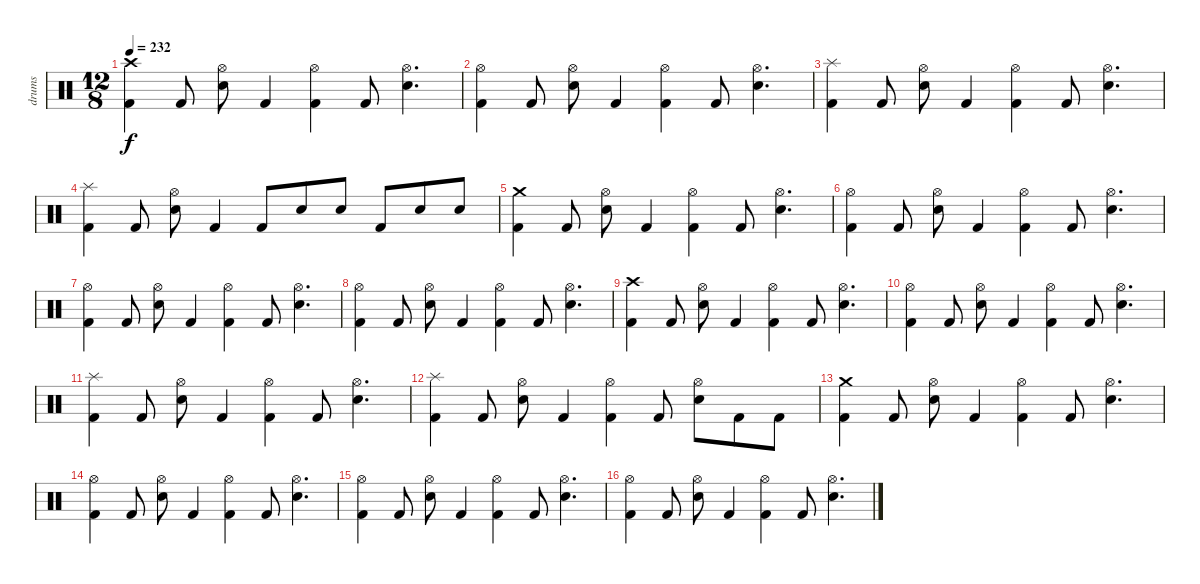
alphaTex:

\track ("drums" "drums") {instrument percussion}
\staff {score}
\articulation defaults
\ts (12 8)
\tempo 232
\clef neutral
\ks c
("Kick (hit) 2" "Crash high (hit)").4{dy f} "Kick (hit) 2".8 ("Electric Snare (hit)" "Hi-Hat (open)").8 "Kick (hit) 2".4 ("Kick (hit) 2" "Hi-Hat (open)").4 "Kick (hit) 2".8 ("Electric Snare (hit)" "Hi-Hat (open)").4{d} |
("Hi-Hat (open)" "Kick (hit) 2").4 "Kick (hit) 2".8 ("Hi-Hat (open)" "Electric Snare (hit)").8 "Kick (hit) 2".4 ("Hi-Hat (open)" "Kick (hit) 2").4 "Kick (hit) 2".8 ("Hi-Hat (open)" "Electric Snare (hit)").4{d} |
("Splash (hit)" "Kick (hit) 2").4 "Kick (hit) 2".8 ("Hi-Hat (open)" "Electric Snare (hit)").8 "Kick (hit) 2".4 ("Hi-Hat (open)" "Kick (hit) 2").4 "Kick (hit) 2".8 ("Hi-Hat (open)" "Electric Snare (hit)").4{d} |
("Splash (hit)" "Kick (hit) 2").4 "Kick (hit) 2".8 ("Hi-Hat (open)" "Electric Snare (hit)").8 "Kick (hit) 2".4 "Kick (hit) 2".8 "Electric Snare (hit)".8 "Electric Snare (hit)".8 "Kick (hit) 2".8 "Electric Snare (hit)".8 "Electric Snare (hit)".8 |
("Kick (hit) 2" "Crash medium (hit)").4 "Kick (hit) 2".8 ("Electric Snare (hit)" "Hi-Hat (open)").8 "Kick (hit) 2".4 ("Kick (hit) 2" "Hi-Hat (open)").4 "Kick (hit) 2".8 ("Electric Snare (hit)" "Hi-Hat (open)").4{d} |
("Hi-Hat (open)" "Kick (hit) 2").4 "Kick (hit) 2".8 ("Hi-Hat (open)" "Electric Snare (hit)").8 "Kick (hit) 2".4 ("Hi-Hat (open)" "Kick (hit) 2").4 "Kick (hit) 2".8 ("Hi-Hat (open)" "Electric Snare (hit)").4{d} |
("Hi-Hat (open)" "Kick (hit) 2").4 "Kick (hit) 2".8 ("Hi-Hat (open)" "Electric Snare (hit)").8 "Kick (hit) 2".4 ("Hi-Hat (open)" "Kick (hit) 2").4 "Kick (hit) 2".8 ("Hi-Hat (open)" "Electric Snare (hit)").4{d} |
("Hi-Hat (open)" "Kick (hit) 2").4 "Kick (hit) 2".8 ("Hi-Hat (open)" "Electric Snare (hit)").8 "Kick (hit) 2".4 ("Hi-Hat (open)" "Kick (hit) 2").4 "Kick (hit) 2".8 ("Hi-Hat (open)" "Electric Snare (hit)").4{d} |
("Kick (hit) 2" "Crash high (hit)").4 "Kick (hit) 2".8 ("Electric Snare (hit)" "Hi-Hat (open)").8 "Kick (hit) 2".4 ("Kick (hit) 2" "Hi-Hat (open)").4 "Kick (hit) 2".8 ("Electric Snare (hit)" "Hi-Hat (open)").4{d} |
("Hi-Hat (open)" "Kick (hit) 2").4 "Kick (hit) 2".8 ("Hi-Hat (open)" "Electric Snare (hit)").8 "Kick (hit) 2".4 ("Hi-Hat (open)" "Kick (hit) 2").4 "Kick (hit) 2".8 ("Hi-Hat (open)" "Electric Snare (hit)").4{d} |
("Splash (hit)" "Kick (hit) 2").4 "Kick (hit) 2".8 ("Hi-Hat (open)" "Electric Snare (hit)").8 "Kick (hit) 2".4 ("Hi-Hat (open)" "Kick (hit) 2").4 "Kick (hit) 2".8 ("Hi-Hat (open)" "Electric Snare (hit)").4{d} |
("Splash (hit)" "Kick (hit) 2").4 "Kick (hit) 2".8 ("Hi-Hat (open)" "Electric Snare (hit)").8 "Kick (hit) 2".4 ("Hi-Hat (open)" "Kick (hit) 2").4 "Kick (hit) 2".8 ("Electric Snare (hit)" "Hi-Hat (open)").8 "Kick (hit) 2".8 "Kick (hit) 2".8 |
("Kick (hit) 2" "Crash medium (hit)").4 "Kick (hit) 2".8 ("Electric Snare (hit)" "Hi-Hat (open)").8 "Kick (hit) 2".4 ("Kick (hit) 2" "Hi-Hat (open)").4 "Kick (hit) 2".8 ("Electric Snare (hit)" "Hi-Hat (open)").4{d} |
("Hi-Hat (open)" "Kick (hit) 2").4 "Kick (hit) 2".8 ("Hi-Hat (open)" "Electric Snare (hit)").8 "Kick (hit) 2".4 ("Hi-Hat (open)" "Kick (hit) 2").4 "Kick (hit) 2".8 ("Hi-Hat (open)" "Electric Snare (hit)").4{d} |
("Hi-Hat (open)" "Kick (hit) 2").4 "Kick (hit) 2".8 ("Hi-Hat (open)" "Electric Snare (hit)").8 "Kick (hit) 2".4 ("Hi-Hat (open)" "Kick (hit) 2").4 "Kick (hit) 2".8 ("Hi-Hat (open)" "Electric Snare (hit)").4{d} |
("Hi-Hat (open)" "Kick (hit) 2").4 "Kick (hit) 2".8 ("Hi-Hat (open)" "Electric Snare (hit)").8 "Kick (hit) 2".4 ("Hi-Hat (open)" "Kick (hit) 2").4 "Kick (hit) 2".8 ("Hi-Hat (open)" "Electric Snare (hit)").4{d}
